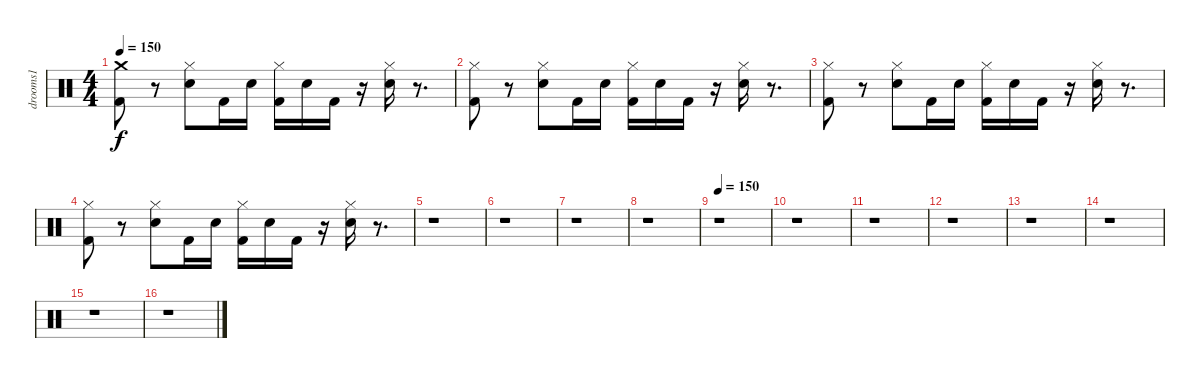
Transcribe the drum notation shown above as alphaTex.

\track ("drooms1" "drooms1") {instrument percussion}
\staff {score}
\articulation defaults
\ts (4 4)
\tempo 150
\clef neutral
\ks c
("Crash medium (hit)" "Kick (hit) 2").8{dy f} r.8 ("Hi-Hat (closed)" "Electric Snare (hit)").8 "Kick (hit) 2".16 "Electric Snare (hit)".16 ("Hi-Hat (closed)" "Kick (hit) 2").16 "Electric Snare (hit)".16 "Kick (hit) 2".16 r.16 ("Hi-Hat (closed)" "Electric Snare (hit)").16 r.8{d} |
("Hi-Hat (closed)" "Kick (hit) 2").8 r.8 ("Hi-Hat (closed)" "Electric Snare (hit)").8 "Kick (hit) 2".16 "Electric Snare (hit)".16 ("Hi-Hat (closed)" "Kick (hit) 2").16 "Electric Snare (hit)".16 "Kick (hit) 2".16 r.16 ("Hi-Hat (closed)" "Electric Snare (hit)").16 r.8{d} |
("Hi-Hat (closed)" "Kick (hit) 2").8 r.8 ("Hi-Hat (closed)" "Electric Snare (hit)").8 "Kick (hit) 2".16 "Electric Snare (hit)".16 ("Hi-Hat (closed)" "Kick (hit) 2").16 "Electric Snare (hit)".16 "Kick (hit) 2".16 r.16 ("Hi-Hat (closed)" "Electric Snare (hit)").16 r.8{d} |
("Hi-Hat (closed)" "Kick (hit) 2").8 r.8 ("Hi-Hat (closed)" "Electric Snare (hit)").8 "Kick (hit) 2".16 "Electric Snare (hit)".16 ("Hi-Hat (closed)" "Kick (hit) 2").16 "Electric Snare (hit)".16 "Kick (hit) 2".16 r.16 ("Hi-Hat (closed)" "Electric Snare (hit)").16 r.8{d} |
r.1 |
r.1 |
r.1 |
r.1 |
\tempo 150
r.1 |
r.1 |
r.1 |
r.1 |
r.1 |
r.1 |
r.1 |
r.1
